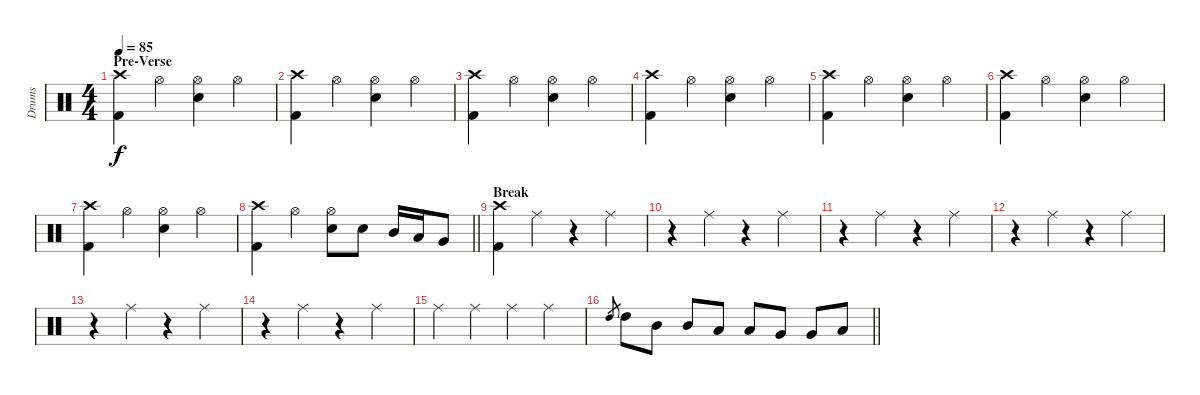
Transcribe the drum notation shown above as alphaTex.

\track ("Drums" "Drums") {instrument percussion}
\staff {score}
\articulation defaults
\ts (4 4)
\section ("" "Pre-Verse")
\tempo 85
\clef neutral
\ks c
("Crash high (hit)" "Kick (hit) 2").4{dy f} "Hi-Hat (open)".4 ("Hi-Hat (open)" "Snare (hit) 2").4 "Hi-Hat (open)".4 |
("Crash high (hit)" "Kick (hit) 2").4 "Hi-Hat (open)".4 ("Hi-Hat (open)" "Snare (hit) 2").4 "Hi-Hat (open)".4 |
("Crash high (hit)" "Kick (hit) 2").4 "Hi-Hat (open)".4 ("Hi-Hat (open)" "Snare (hit) 2").4 "Hi-Hat (open)".4 |
("Crash high (hit)" "Kick (hit) 2").4 "Hi-Hat (open)".4 ("Hi-Hat (open)" "Snare (hit) 2").4 "Hi-Hat (open)".4 |
("Crash high (hit)" "Kick (hit) 2").4 "Hi-Hat (open)".4 ("Hi-Hat (open)" "Snare (hit) 2").4 "Hi-Hat (open)".4 |
("Crash high (hit)" "Kick (hit) 2").4 "Hi-Hat (open)".4 ("Hi-Hat (open)" "Snare (hit) 2").4 "Hi-Hat (open)".4 |
("Crash high (hit)" "Kick (hit) 2").4 "Hi-Hat (open)".4 ("Hi-Hat (open)" "Snare (hit) 2").4 "Hi-Hat (open)".4 |
\barLineRight lightlight
("Crash high (hit)" "Kick (hit) 2").4 "Hi-Hat (open)".4 ("Hi-Hat (open)" "Snare (hit) 2").8 "Snare (hit) 2".8 "Mid Tom (hit)".16 "Low Tom (hit)".16 "Very Low Tom (hit)".8 |
\section ("" "Break")
("Crash high (hit)" "Kick (hit) 2").4 "Ride (middle)".4 r.4 "Ride (middle)".4 |
r.4 "Ride (middle)".4 r.4 "Ride (middle)".4 |
r.4 "Ride (middle)".4 r.4 "Ride (middle)".4 |
r.4 "Ride (middle)".4 r.4 "Ride (middle)".4 |
r.4 "Ride (middle)".4 r.4 "Ride (middle)".4 |
r.4 "Ride (middle)".4 r.4 "Ride (middle)".4 |
"Ride (middle)".4 "Ride (middle)".4 "Ride (middle)".4 "Ride (middle)".4 |
\barLineRight lightlight "High Tom (hit)".8{gr} "High Tom (hit)".8 "Mid Tom (hit)".8 "Mid Tom (hit)".8 "Low Tom (hit)".8 "Low Tom (hit)".8 "Very Low Tom (hit)".8 "Very Low Tom (hit)".8 "Low Floor Tom (hit)".8
